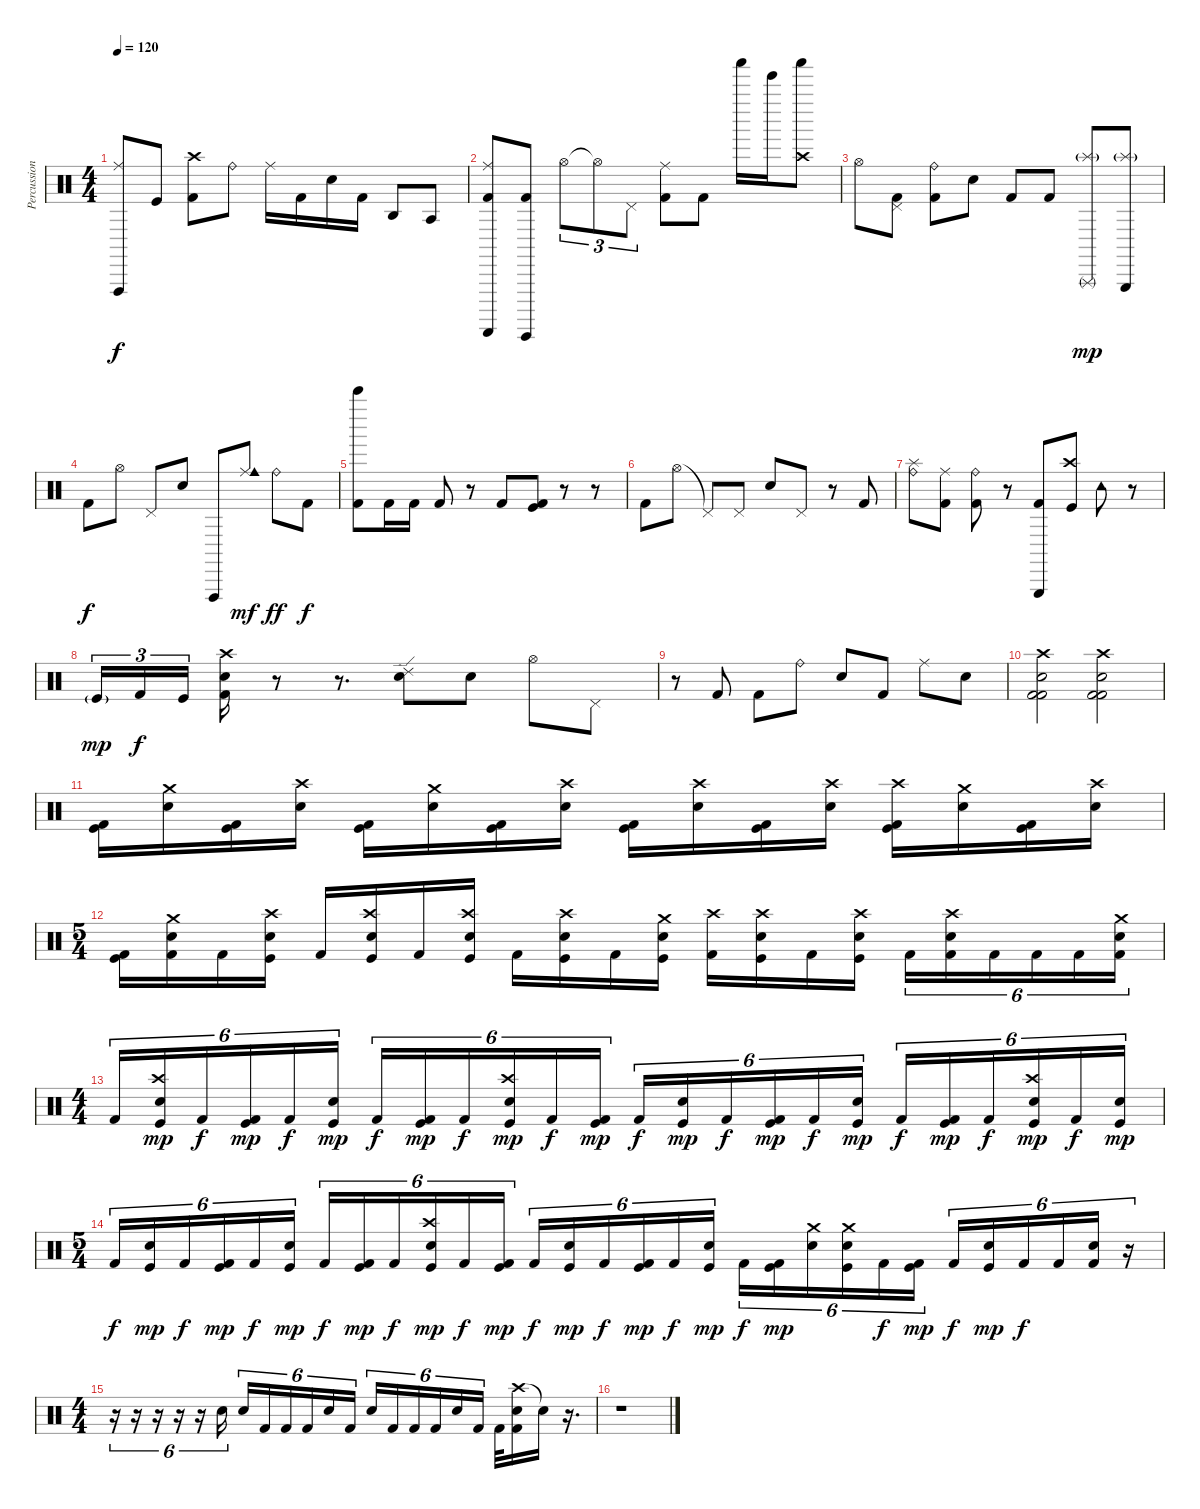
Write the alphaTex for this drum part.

\track ("Percussioni" "Percussion") {instrument percussion}
\staff {score}
\articulation defaults
\ts (4 4)
\tempo 120
\clef neutral
\ks c
("Vibraslap (hit)" "Ride (middle)").8{dy f} "Kick (hit)".8 ("Crash high (hit)" "Kick (hit) 2").8 "Ride (bell)".8 "Ride (middle)".16 "Kick (hit) 2".16 "Electric Snare (hit)".16 "Kick (hit) 2".16 "Agogo high (hit)".8 "Agogo tow (hit)".8 |
("Guiro (scrap-return)" "Kick (hit) 2" "Ride (middle)").8 ("Guiro (hit)" "Kick (hit) 2").8 "Hi-Hat (open)".8{tu (3 2)} "Hi-Hat (open)"{t}.8{tu (3 2)} "Pedal Hi-Hat (hit)".8{tu (3 2)} ("Kick (hit) 2" "Ride (middle)").8 "Kick (hit) 2".8 "Shaker (hit)".16 "Tinkle Bell (hit)".16 ("Crash high (hit)" "Shaker (hit)").8 |
"Hi-Hat (open)".8 ("Pedal Hi-Hat (hit)" "Kick (hit) 2").8 ("Ride (bell)" "Kick (hit) 2").8 "Electric Snare (hit)".8 "Kick (hit) 2".8 "Kick (hit) 2".8 ("Triangle (rnute)" "Splash (hit)"{g}).8{dy mp} ("Triangle (hit)" "Splash (hit)"{g}).8 |
"Kick (hit) 2".8{dy f} "Hi-Hat (open)".8 "Pedal Hi-Hat (hit)".8 "Electric Snare (hit)".8 "Vibraslap (hit)".8 ("Ride (middle)" "Cowbell medium (hit)").8{dy mf} "Ride (bell)".8{dy ff} "Kick (hit) 2".8{dy f} |
("Bell Tree (hit)" "Kick (hit) 2").8 "Kick (hit) 2".16 "Kick (hit) 2".16 "Kick (hit) 2".8 r.8 "Kick (hit) 2".8 ("Kick (hit) 2" "Kick (hit)").8 r.8 r.8 |
"Kick (hit) 2".8 "Hi-Hat (open)".8 "Pedal Hi-Hat (hit)"{t}.8 "Pedal Hi-Hat (hit)".8 "Electric Snare (hit)".8 "Pedal Hi-Hat (hit)".8 r.8 "Kick (hit) 2".8 |
("Splash (hit)" "Ride (bell)").8 ("Ride (middle)" "Kick (hit) 2").8 ("Ride (bell)" "Kick (hit) 2").8 r.8 ("Triangle (hit)" "Kick (hit) 2").8 ("Crash high (hit)" "Kick (hit)").8 "Tambourine (hit)".8 r.8 |
"Kick (hit)"{g}.16{tu (3 2) dy mp} "Kick (hit) 2".16{tu (3 2) dy f} "Kick (hit)".16{tu (3 2)} ("Crash high (hit)" "Kick (hit) 2" "Electric Snare (hit)").16 r.8 r.8{d} ("Ride (edge) 2" "Electric Snare (hit)").8 "Electric Snare (hit)".8 "Hi-Hat (open)".8 "Pedal Hi-Hat (hit)".8 |
r.8 "Kick (hit) 2".8 "Kick (hit) 2".8 "Ride (bell)".8 "Electric Snare (hit)".8 "Kick (hit) 2".8 "Ride (middle)".8 "Electric Snare (hit)".8 |
("Crash high (hit)" "Kick (hit) 2" "Electric Snare (hit)" "Kick (hit) 2").2 ("Crash high (hit)" "Kick (hit) 2" "Electric Snare (hit)" "Kick (hit) 2").2 |
("Kick (hit) 2" "Kick (hit)").16 ("Crash medium (hit)" "Electric Snare (hit)").16 ("Kick (hit) 2" "Kick (hit)").16 ("Crash high (hit)" "Electric Snare (hit)").16 ("Kick (hit) 2" "Kick (hit)").16 ("Crash medium (hit)" "Electric Snare (hit)").16 ("Kick (hit) 2" "Kick (hit)").16 ("Crash high (hit)" "Electric Snare (hit)").16 ("Kick (hit) 2" "Kick (hit)").16 ("Crash high (hit)" "Electric Snare (hit)").16 ("Kick (hit) 2" "Kick (hit)").16 ("Crash high (hit)" "Electric Snare (hit)").16 ("Crash high (hit)" "Kick (hit) 2" "Kick (hit)").16 ("Crash medium (hit)" "Electric Snare (hit)").16 ("Kick (hit) 2" "Kick (hit)").16 ("Crash high (hit)" "Electric Snare (hit)").16 |
\ts (5 4)
("Kick (hit) 2" "Kick (hit)").16 ("Crash medium (hit)" "Electric Snare (hit)" "Kick (hit) 2").16 "Kick (hit) 2".16 ("Crash high (hit)" "Electric Snare (hit)" "Kick (hit)").16 "Kick (hit) 2".16 ("Crash high (hit)" "Electric Snare (hit)" "Kick (hit)").16 "Kick (hit) 2".16 ("Crash high (hit)" "Electric Snare (hit)" "Kick (hit)").16 "Kick (hit) 2".16 ("Crash high (hit)" "Electric Snare (hit)" "Kick (hit)").16 "Kick (hit) 2".16 ("Crash medium (hit)" "Electric Snare (hit)" "Kick (hit)").16 ("Crash high (hit)" "Kick (hit) 2").16 ("Crash high (hit)" "Electric Snare (hit)" "Kick (hit)").16 "Kick (hit) 2".16 ("Crash high (hit)" "Electric Snare (hit)" "Kick (hit)").16 "Kick (hit) 2".16{tu (6 4)} ("Crash high (hit)" "Electric Snare (hit)" "Kick (hit) 2").16{tu (6 4)} "Kick (hit) 2".16{tu (6 4)} "Kick (hit) 2".16{tu (6 4)} "Kick (hit) 2".16{tu (6 4)} ("Crash medium (hit)" "Electric Snare (hit)" "Kick (hit) 2").16{tu (6 4)} |
\ts (4 4)
"Kick (hit) 2".16{tu (6 4)} ("Crash high (hit)" "Electric Snare (hit)" "Kick (hit)").16{tu (6 4) dy mp} "Kick (hit) 2".16{tu (6 4) dy f} ("Kick (hit) 2" "Kick (hit)").16{tu (6 4) dy mp} "Kick (hit) 2".16{tu (6 4) dy f} ("Electric Snare (hit)" "Kick (hit)").16{tu (6 4) dy mp} "Kick (hit) 2".16{tu (6 4) dy f} ("Kick (hit) 2" "Kick (hit)").16{tu (6 4) dy mp} "Kick (hit) 2".16{tu (6 4) dy f} ("Crash high (hit)" "Electric Snare (hit)" "Kick (hit)").16{tu (6 4) dy mp} "Kick (hit) 2".16{tu (6 4) dy f} ("Kick (hit) 2" "Kick (hit)").16{tu (6 4) dy mp} "Kick (hit) 2".16{tu (6 4) dy f} ("Electric Snare (hit)" "Kick (hit)").16{tu (6 4) dy mp} "Kick (hit) 2".16{tu (6 4) dy f} ("Kick (hit) 2" "Kick (hit)").16{tu (6 4) dy mp} "Kick (hit) 2".16{tu (6 4) dy f} ("Electric Snare (hit)" "Kick (hit)").16{tu (6 4) dy mp} "Kick (hit) 2".16{tu (6 4) dy f} ("Kick (hit) 2" "Kick (hit)").16{tu (6 4) dy mp} "Kick (hit) 2".16{tu (6 4) dy f} ("Crash high (hit)" "Electric Snare (hit)" "Kick (hit)").16{tu (6 4) dy mp} "Kick (hit) 2".16{tu (6 4) dy f} ("Electric Snare (hit)" "Kick (hit)").16{tu (6 4) dy mp} |
\ts (5 4)
"Kick (hit) 2".16{tu (6 4) dy f} ("Electric Snare (hit)" "Kick (hit)").16{tu (6 4) dy mp} "Kick (hit) 2".16{tu (6 4) dy f} ("Kick (hit) 2" "Kick (hit)").16{tu (6 4) dy mp} "Kick (hit) 2".16{tu (6 4) dy f} ("Electric Snare (hit)" "Kick (hit)").16{tu (6 4) dy mp} "Kick (hit) 2".16{tu (6 4) dy f} ("Kick (hit) 2" "Kick (hit)").16{tu (6 4) dy mp} "Kick (hit) 2".16{tu (6 4) dy f} ("Crash high (hit)" "Electric Snare (hit)" "Kick (hit)").16{tu (6 4) dy mp} "Kick (hit) 2".16{tu (6 4) dy f} ("Kick (hit) 2" "Kick (hit)").16{tu (6 4) dy mp} "Kick (hit) 2".16{tu (6 4) dy f} ("Electric Snare (hit)" "Kick (hit)").16{tu (6 4) dy mp} "Kick (hit) 2".16{tu (6 4) dy f} ("Kick (hit) 2" "Kick (hit)").16{tu (6 4) dy mp} "Kick (hit) 2".16{tu (6 4) dy f} ("Electric Snare (hit)" "Kick (hit)").16{tu (6 4) dy mp} "Kick (hit) 2".16{tu (6 4) dy f} ("Kick (hit) 2" "Kick (hit)").16{tu (6 4) dy mp} ("Crash medium (hit)" "Electric Snare (hit)").16{tu (6 4)} ("Crash medium (hit)" "Electric Snare (hit)" "Kick (hit)").16{tu (6 4)} "Kick (hit) 2".16{tu (6 4) dy f} ("Kick (hit) 2" "Kick (hit)").16{tu (6 4) dy mp} "Kick (hit) 2".16{tu (6 4) dy f} ("Electric Snare (hit)" "Kick (hit)").16{tu (6 4) dy mp} "Kick (hit) 2".16{tu (6 4) dy f} "Kick (hit) 2".16{tu (6 4)} ("Kick (hit) 2" "Electric Snare (hit)").16{tu (6 4)} r.16{tu (6 4)} |
\ts (4 4)
r.16{tu (6 4)} r.16{tu (6 4)} r.16{tu (6 4)} r.16{tu (6 4)} r.16{tu (6 4)} "Electric Snare (hit)".16{tu (6 4)} "Electric Snare (hit)".16{tu (6 4)} "Kick (hit) 2".16{tu (6 4)} "Kick (hit) 2".16{tu (6 4)} "Kick (hit) 2".16{tu (6 4)} "Electric Snare (hit)".16{tu (6 4)} "Kick (hit) 2".16{tu (6 4)} "Electric Snare (hit)".16{tu (6 4)} "Kick (hit) 2".16{tu (6 4)} "Kick (hit) 2".16{tu (6 4)} "Kick (hit) 2".16{tu (6 4)} "Electric Snare (hit)".16{tu (6 4)} "Kick (hit) 2".16{tu (6 4)} "Kick (hit) 2".32 ("Crash high (hit)" "Kick (hit) 2" "Electric Snare (hit)").16 "Snare (hit)"{t}.16 r.16{d} |
r.1
